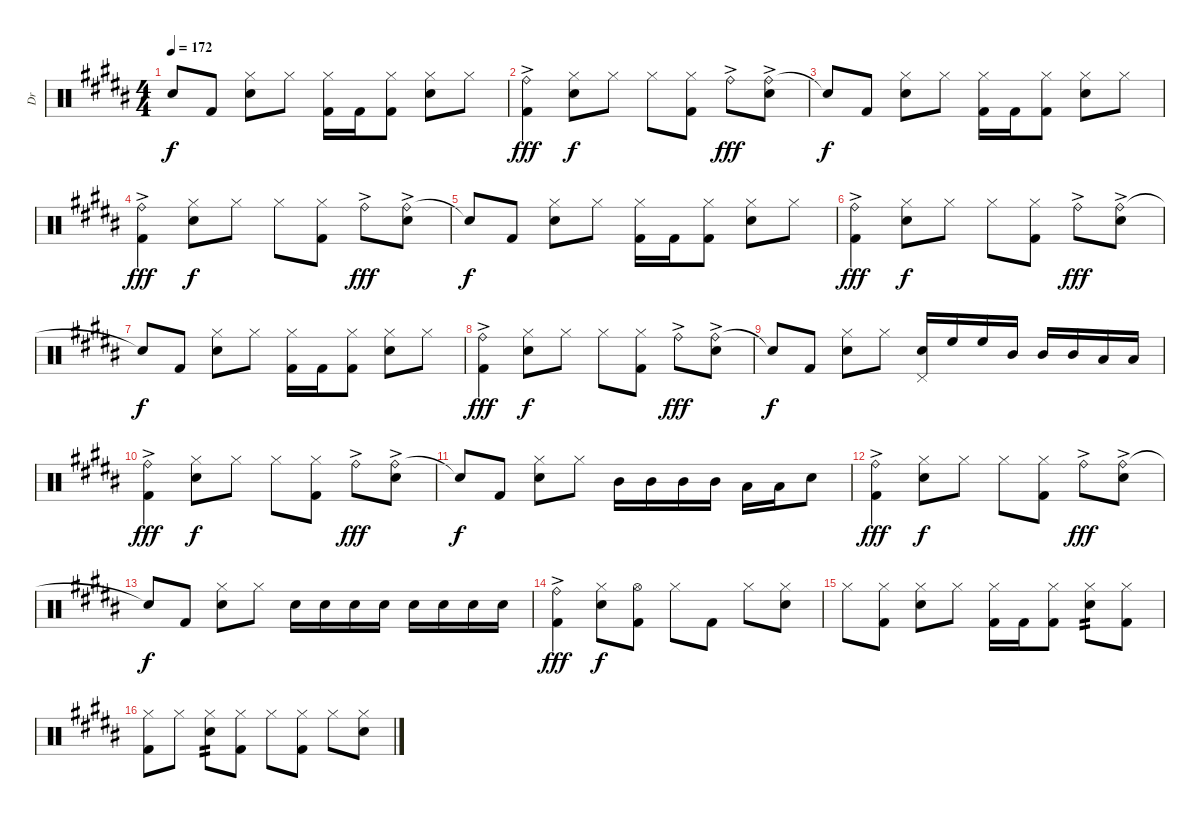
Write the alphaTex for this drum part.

\track ("Dr" "Dr") {instrument percussion}
\staff {score}
\articulation defaults
\ts (4 4)
\tempo 172
\clef neutral
\ks b "Snare (hit)"{t}.8{dy f} "Kick (hit) 2".8
("Hi-Hat (closed)" "Electric Snare (hit)").8 "Hi-Hat (closed)".8 ("Hi-Hat (closed)" "Kick (hit) 2").16 "Kick (hit) 2".16 ("Hi-Hat (closed)" "Kick (hit) 2").8 ("Hi-Hat (closed)" "Electric Snare (hit)").8 "Hi-Hat (closed)".8 |
("Ride (bell)"{ac} "Kick (hit) 2"{ac}).4{dy fff} ("Hi-Hat (closed)" "Electric Snare (hit)").8{dy f} "Hi-Hat (closed)".8 "Hi-Hat (closed)".8 ("Hi-Hat (closed)" "Kick (hit) 2").8 "Ride (bell)"{ac}.8{dy fff} ("Ride (bell)"{ac} "Electric Snare (hit)").8 |
"Snare (hit)"{t}.8{dy f} "Kick (hit) 2".8 ("Hi-Hat (closed)" "Electric Snare (hit)").8 "Hi-Hat (closed)".8 ("Hi-Hat (closed)" "Kick (hit) 2").16 "Kick (hit) 2".16 ("Hi-Hat (closed)" "Kick (hit) 2").8 ("Hi-Hat (closed)" "Electric Snare (hit)").8 "Hi-Hat (closed)".8 |
("Ride (bell)"{ac} "Kick (hit) 2"{ac}).4{dy fff} ("Hi-Hat (closed)" "Electric Snare (hit)").8{dy f} "Hi-Hat (closed)".8 "Hi-Hat (closed)".8 ("Hi-Hat (closed)" "Kick (hit) 2").8 "Ride (bell)"{ac}.8{dy fff} ("Ride (bell)"{ac} "Electric Snare (hit)").8 |
"Snare (hit)"{t}.8{dy f} "Kick (hit) 2".8 ("Hi-Hat (closed)" "Electric Snare (hit)").8 "Hi-Hat (closed)".8 ("Hi-Hat (closed)" "Kick (hit) 2").16 "Kick (hit) 2".16 ("Hi-Hat (closed)" "Kick (hit) 2").8 ("Hi-Hat (closed)" "Electric Snare (hit)").8 "Hi-Hat (closed)".8 |
("Ride (bell)"{ac} "Kick (hit) 2"{ac}).4{dy fff} ("Hi-Hat (closed)" "Electric Snare (hit)").8{dy f} "Hi-Hat (closed)".8 "Hi-Hat (closed)".8 ("Hi-Hat (closed)" "Kick (hit) 2").8 "Ride (bell)"{ac}.8{dy fff} ("Ride (bell)"{ac} "Electric Snare (hit)").8 |
"Snare (hit)"{t}.8{dy f} "Kick (hit) 2".8 ("Hi-Hat (closed)" "Electric Snare (hit)").8 "Hi-Hat (closed)".8 ("Hi-Hat (closed)" "Kick (hit) 2").16 "Kick (hit) 2".16 ("Hi-Hat (closed)" "Kick (hit) 2").8 ("Hi-Hat (closed)" "Electric Snare (hit)").8 "Hi-Hat (closed)".8 |
("Ride (bell)"{ac} "Kick (hit) 2"{ac}).4{dy fff} ("Hi-Hat (closed)" "Electric Snare (hit)").8{dy f} "Hi-Hat (closed)".8 "Hi-Hat (closed)".8 ("Hi-Hat (closed)" "Kick (hit) 2").8 "Ride (bell)"{ac}.8{dy fff} ("Ride (bell)"{ac} "Electric Snare (hit)").8 |
"Snare (hit)"{t}.8{dy f} "Kick (hit) 2".8 ("Hi-Hat (closed)" "Electric Snare (hit)").8 "Hi-Hat (closed)".8 ("Electric Snare (hit)" "Pedal Hi-Hat (hit)").16 "High Floor Tom (hit)".16 "High Floor Tom (hit)".16 "Mid Tom (hit)".16 "Mid Tom (hit)".16 "Mid Tom (hit)".16 "Low Tom (hit)".16 "Low Tom (hit)".16 |
("Ride (bell)"{ac} "Kick (hit) 2"{ac}).4{dy fff} ("Hi-Hat (closed)" "Electric Snare (hit)").8{dy f} "Hi-Hat (closed)".8 "Hi-Hat (closed)".8 ("Hi-Hat (closed)" "Kick (hit) 2").8 "Ride (bell)"{ac}.8{dy fff} ("Ride (bell)"{ac} "Electric Snare (hit)").8 |
"Snare (hit)"{t}.8{dy f} "Kick (hit) 2".8 ("Hi-Hat (closed)" "Electric Snare (hit)").8 "Hi-Hat (closed)".8 "Mid Tom (hit)".16 "Mid Tom (hit)".16 "Mid Tom (hit)".16 "Mid Tom (hit)".16 "Low Tom (hit)".16 "Low Tom (hit)".16 "Electric Snare (hit)".8 |
("Ride (bell)"{ac} "Kick (hit) 2"{ac}).4{dy fff} ("Hi-Hat (closed)" "Electric Snare (hit)").8{dy f} "Hi-Hat (closed)".8 "Hi-Hat (closed)".8 ("Hi-Hat (closed)" "Kick (hit) 2").8 "Ride (bell)"{ac}.8{dy fff} ("Ride (bell)"{ac} "Electric Snare (hit)").8 |
"Snare (hit)"{t}.8{dy f} "Kick (hit) 2".8 ("Hi-Hat (closed)" "Electric Snare (hit)").8 "Hi-Hat (closed)".8 "Electric Snare (hit)".16 "Electric Snare (hit)".16 "Electric Snare (hit)".16 "Electric Snare (hit)".16 "Electric Snare (hit)".16 "Electric Snare (hit)".16 "Electric Snare (hit)".16 "Electric Snare (hit)".16 |
("Ride (bell)"{ac} "Kick (hit) 2"{ac}).4{dy fff} ("Hi-Hat (closed)" "Electric Snare (hit)").8{dy f} ("Hi-Hat (open)" "Kick (hit) 2").8 "Hi-Hat (closed)".8 "Kick (hit) 2".8 "Hi-Hat (closed)".8 ("Hi-Hat (closed)" "Electric Snare (hit)").8 |
"Hi-Hat (closed)".8 ("Hi-Hat (closed)" "Kick (hit) 2").8 ("Hi-Hat (closed)" "Electric Snare (hit)").8 "Hi-Hat (closed)".8 ("Hi-Hat (closed)" "Kick (hit) 2").16 "Kick (hit) 2".16 ("Hi-Hat (closed)" "Kick (hit) 2").8 ("Hi-Hat (closed)" "Electric Snare (hit)").8{tp 2} ("Hi-Hat (closed)" "Kick (hit) 2").8 |
("Hi-Hat (closed)" "Kick (hit) 2").8 "Hi-Hat (closed)".8 ("Hi-Hat (closed)" "Electric Snare (hit)").8{tp 2} ("Hi-Hat (closed)" "Kick (hit) 2").8 "Hi-Hat (closed)".8 ("Hi-Hat (closed)" "Kick (hit) 2").8 "Hi-Hat (closed)".8 ("Hi-Hat (closed)" "Electric Snare (hit)").8
